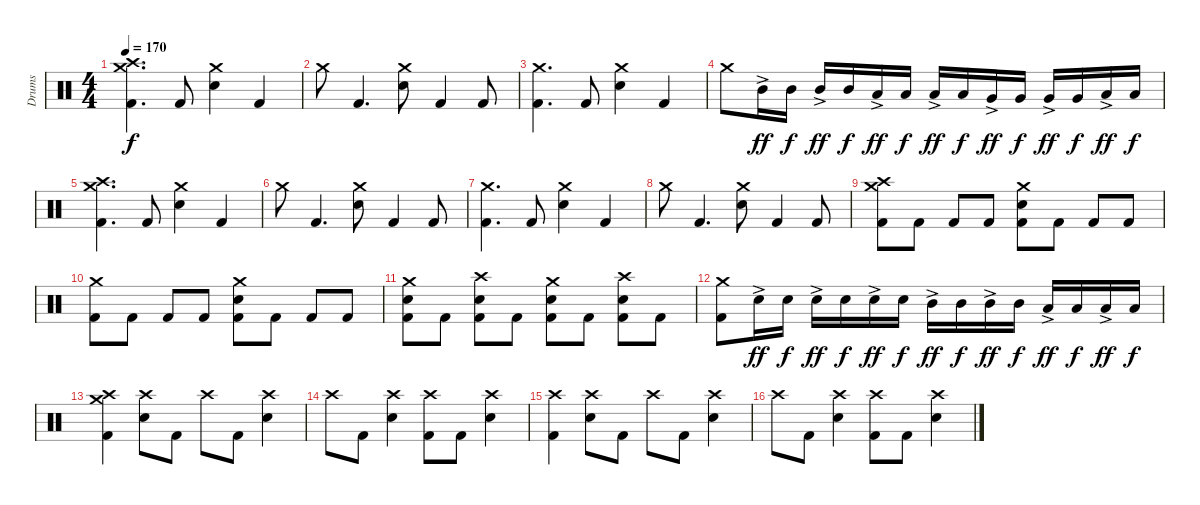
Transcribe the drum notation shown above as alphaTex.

\track ("Drums" "Drums") {instrument percussion}
\staff {score}
\articulation defaults
\ts (4 4)
\tempo 170
\clef neutral
\ks c
("Crash medium (hit)" "Crash high (hit)" "Kick (hit) 2").4{d dy f} "Kick (hit) 2".8 ("Crash medium (hit)" "Electric Snare (hit)").4 "Kick (hit) 2".4 |
"Crash medium (hit)".8 "Kick (hit) 2".4{d} ("Crash medium (hit)" "Electric Snare (hit)").8 "Kick (hit) 2".4 "Kick (hit) 2".8 |
("Crash medium (hit)" "Kick (hit) 2").4{d} "Kick (hit) 2".8 ("Crash medium (hit)" "Electric Snare (hit)").4 "Kick (hit) 2".4 |
"Crash medium (hit)".8 "Mid Tom (hit)"{ac}.16{dy ff} "Mid Tom (hit)".16{dy f} "Mid Tom (hit)"{ac}.16{dy ff} "Mid Tom (hit)".16{dy f} "Low Tom (hit)"{ac}.16{dy ff} "Low Tom (hit)".16{dy f} "Low Tom (hit)"{ac}.16{dy ff} "Low Tom (hit)".16{dy f} "Very Low Tom (hit)"{ac}.16{dy ff} "Very Low Tom (hit)".16{dy f} "Very Low Tom (hit)"{ac}.16{dy ff} "Very Low Tom (hit)".16{dy f} "Low Floor Tom (hit)"{ac}.16{dy ff} "Low Floor Tom (hit)".16{dy f} |
("Crash medium (hit)" "Crash high (hit)" "Kick (hit) 2").4{d} "Kick (hit) 2".8 ("Crash medium (hit)" "Electric Snare (hit)").4 "Kick (hit) 2".4 |
"Crash medium (hit)".8 "Kick (hit) 2".4{d} ("Crash medium (hit)" "Electric Snare (hit)").8 "Kick (hit) 2".4 "Kick (hit) 2".8 |
("Crash medium (hit)" "Kick (hit) 2").4{d} "Kick (hit) 2".8 ("Crash medium (hit)" "Electric Snare (hit)").4 "Kick (hit) 2".4 |
"Crash medium (hit)".8 "Kick (hit) 2".4{d} ("Crash medium (hit)" "Electric Snare (hit)").8 "Kick (hit) 2".4 "Kick (hit) 2".8 |
("Crash medium (hit)" "Crash high (hit)" "Kick (hit) 2").8 "Kick (hit) 2".8 "Kick (hit) 2".8 "Kick (hit) 2".8 ("Crash medium (hit)" "Electric Snare (hit)" "Kick (hit) 2").8 "Kick (hit) 2".8 "Kick (hit) 2".8 "Kick (hit) 2".8 |
("Crash medium (hit)" "Kick (hit) 2").8 "Kick (hit) 2".8 "Kick (hit) 2".8 "Kick (hit) 2".8 ("Crash medium (hit)" "Electric Snare (hit)" "Kick (hit) 2").8 "Kick (hit) 2".8 "Kick (hit) 2".8 "Kick (hit) 2".8 |
("Crash medium (hit)" "Electric Snare (hit)" "Kick (hit) 2").8 "Kick (hit) 2".8 ("Crash high (hit)" "Electric Snare (hit)" "Kick (hit) 2").8 "Kick (hit) 2".8 ("Crash medium (hit)" "Electric Snare (hit)" "Kick (hit) 2").8 "Kick (hit) 2".8 ("Crash high (hit)" "Electric Snare (hit)" "Kick (hit) 2").8 "Kick (hit) 2".8 |
("Crash medium (hit)" "Kick (hit) 2").8 "Electric Snare (hit)"{ac}.16{dy ff} "Electric Snare (hit)".16{dy f} "Electric Snare (hit)"{ac}.16{dy ff} "Electric Snare (hit)".16{dy f} "Electric Snare (hit)"{ac}.16{dy ff} "Electric Snare (hit)".16{dy f} "Mid Tom (hit)"{ac}.16{dy ff} "Mid Tom (hit)".16{dy f} "Mid Tom (hit)"{ac}.16{dy ff} "Mid Tom (hit)".16{dy f} "Low Tom (hit)"{ac}.16{dy ff} "Low Tom (hit)".16{dy f} "Low Tom (hit)"{ac}.16{dy ff} "Low Tom (hit)".16{dy f} |
("Crash medium (hit)" "Crash high (hit)" "Kick (hit) 2").4 ("Crash high (hit)" "Electric Snare (hit)").8 "Kick (hit) 2".8 "Crash high (hit)".8 "Kick (hit) 2".8 ("Crash high (hit)" "Electric Snare (hit)").4 |
"Crash high (hit)".8 "Kick (hit) 2".8 ("Crash high (hit)" "Electric Snare (hit)").4 ("Crash high (hit)" "Kick (hit) 2").8 "Kick (hit) 2".8 ("Crash high (hit)" "Electric Snare (hit)").4 |
("Crash high (hit)" "Kick (hit) 2").4 ("Crash high (hit)" "Electric Snare (hit)").8 "Kick (hit) 2".8 "Crash high (hit)".8 "Kick (hit) 2".8 ("Crash high (hit)" "Electric Snare (hit)").4 |
"Crash high (hit)".8 "Kick (hit) 2".8 ("Crash high (hit)" "Electric Snare (hit)").4 ("Crash high (hit)" "Kick (hit) 2").8 "Kick (hit) 2".8 ("Crash high (hit)" "Electric Snare (hit)").4
